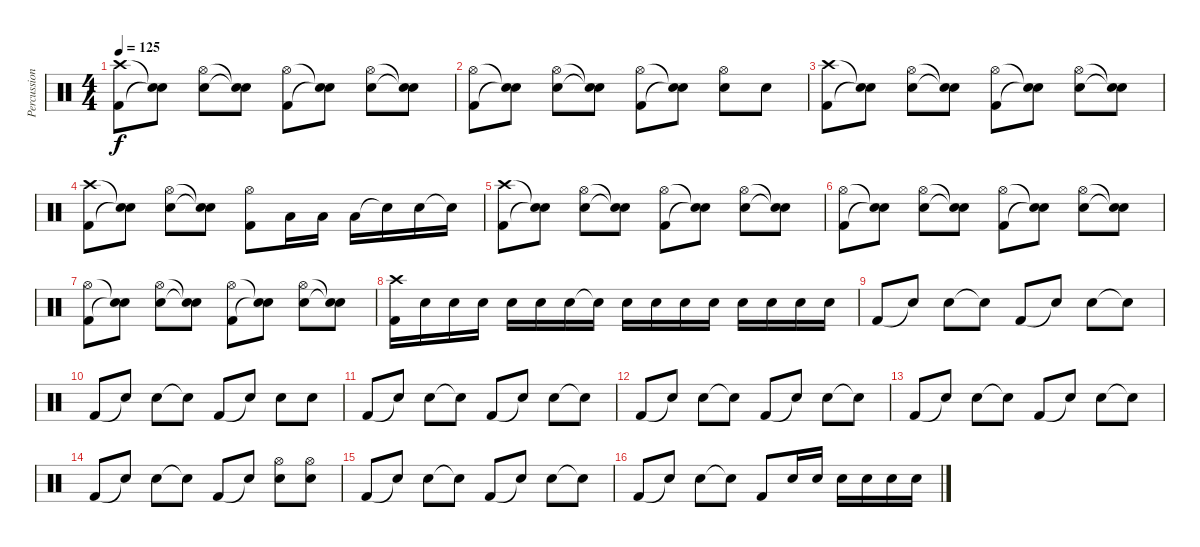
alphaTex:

\track ("Percussion" "Percussion") {instrument percussion}
\staff {score}
\articulation defaults
\ts (4 4)
\tempo 125
\clef neutral
\ks c
("Kick (hit) 2" "Crash high (hit)").8{dy f} ("Snare (hit)"{t} "Snare (hit)"{t}).8 ("Snare (hit) 2" "Hi-Hat (open)").8 ("Snare (hit)"{t} "Snare (hit)"{t}).8 ("Kick (hit) 2" "Hi-Hat (open)").8 ("Snare (hit)"{t} "Snare (hit)"{t}).8 ("Snare (hit) 2" "Hi-Hat (open)").8 ("Snare (hit)"{t} "Snare (hit)"{t}).8 |
("Kick (hit) 2" "Hi-Hat (open)").8 ("Snare (hit)"{t} "Snare (hit)"{t}).8 ("Snare (hit) 2" "Hi-Hat (open)").8 ("Snare (hit)"{t} "Snare (hit)"{t}).8 ("Kick (hit) 2" "Hi-Hat (open)").8 ("Snare (hit)"{t} "Snare (hit)"{t}).8 ("Snare (hit) 2" "Hi-Hat (open)").8 "Snare (hit) 2".8 |
("Kick (hit) 2" "Crash high (hit)").8 ("Snare (hit)"{t} "Snare (hit)"{t}).8 ("Snare (hit) 2" "Hi-Hat (open)").8 ("Snare (hit)"{t} "Snare (hit)"{t}).8 ("Kick (hit) 2" "Hi-Hat (open)").8 ("Snare (hit)"{t} "Snare (hit)"{t}).8 ("Snare (hit) 2" "Hi-Hat (open)").8 ("Snare (hit)"{t} "Snare (hit)"{t}).8 |
("Kick (hit) 2" "Crash high (hit)").8 ("Snare (hit)"{t} "Snare (hit)"{t}).8 ("Snare (hit) 2" "Hi-Hat (open)").8 ("Snare (hit)"{t} "Snare (hit)"{t}).8 ("Kick (hit) 2" "Hi-Hat (open)").8 "Low Tom (hit)".16 "Low Tom (hit)".16 "Low Tom (hit)".16 "Snare (hit)"{t}.16 "Snare (hit) 2".16 "Snare (hit)"{t}.16 |
("Kick (hit) 2" "Crash high (hit)").8 ("Snare (hit)"{t} "Snare (hit)"{t}).8 ("Snare (hit) 2" "Hi-Hat (open)").8 ("Snare (hit)"{t} "Snare (hit)"{t}).8 ("Kick (hit) 2" "Hi-Hat (open)").8 ("Snare (hit)"{t} "Snare (hit)"{t}).8 ("Snare (hit) 2" "Hi-Hat (open)").8 ("Snare (hit)"{t} "Snare (hit)"{t}).8 |
("Kick (hit) 2" "Hi-Hat (open)").8 ("Snare (hit)"{t} "Snare (hit)"{t}).8 ("Snare (hit) 2" "Hi-Hat (open)").8 ("Snare (hit)"{t} "Snare (hit)"{t}).8 ("Kick (hit) 2" "Hi-Hat (open)").8 ("Snare (hit)"{t} "Snare (hit)"{t}).8 ("Snare (hit) 2" "Hi-Hat (open)").8 ("Snare (hit)"{t} "Snare (hit)"{t}).8 |
("Kick (hit) 2" "Hi-Hat (open)").8 ("Snare (hit)"{t} "Snare (hit)"{t}).8 ("Snare (hit) 2" "Hi-Hat (open)").8 ("Snare (hit)"{t} "Snare (hit)"{t}).8 ("Kick (hit) 2" "Hi-Hat (open)").8 ("Snare (hit)"{t} "Snare (hit)"{t}).8 ("Snare (hit) 2" "Hi-Hat (open)").8 ("Snare (hit)"{t} "Snare (hit)"{t}).8 |
("Kick (hit) 2" "Crash high (hit)").16 "Snare (hit) 2".16 "Snare (hit) 2".16 "Snare (hit) 2".16 "Snare (hit) 2".16 "Snare (hit) 2".16 "Snare (hit) 2".16 "Snare (hit)"{t}.16 "Snare (hit) 2".16 "Snare (hit) 2".16 "Snare (hit) 2".16 "Snare (hit) 2".16 "Snare (hit) 2".16 "Snare (hit) 2".16 "Snare (hit) 2".16 "Snare (hit) 2".16 |
"Kick (hit) 2".8 "Snare (hit)"{t}.8 "Snare (hit) 2".8 "Snare (hit)"{t}.8 "Kick (hit) 2".8 "Snare (hit)"{t}.8 "Snare (hit) 2".8 "Snare (hit)"{t}.8 |
"Kick (hit) 2".8 "Snare (hit)"{t}.8 "Snare (hit) 2".8 "Snare (hit)"{t}.8 "Kick (hit) 2".8 "Snare (hit)"{t}.8 "Snare (hit) 2".8 "Snare (hit) 2".8 |
"Kick (hit) 2".8 "Snare (hit)"{t}.8 "Snare (hit) 2".8 "Snare (hit)"{t}.8 "Kick (hit) 2".8 "Snare (hit)"{t}.8 "Snare (hit) 2".8 "Snare (hit)"{t}.8 |
"Kick (hit) 2".8 "Snare (hit)"{t}.8 "Snare (hit) 2".8 "Snare (hit)"{t}.8 "Kick (hit) 2".8 "Snare (hit)"{t}.8 "Snare (hit) 2".8 "Snare (hit)"{t}.8 |
"Kick (hit) 2".8 "Snare (hit)"{t}.8 "Snare (hit) 2".8 "Snare (hit)"{t}.8 "Kick (hit) 2".8 "Snare (hit)"{t}.8 "Snare (hit) 2".8 "Snare (hit)"{t}.8 |
"Kick (hit) 2".8 "Snare (hit)"{t}.8 "Snare (hit) 2".8 "Snare (hit)"{t}.8 "Kick (hit) 2".8 "Snare (hit)"{t}.8 ("Snare (hit) 2" "Hi-Hat (open)").8 ("Snare (hit) 2" "Hi-Hat (open)").8 |
"Kick (hit) 2".8 "Snare (hit)"{t}.8 "Snare (hit) 2".8 "Snare (hit)"{t}.8 "Kick (hit) 2".8 "Snare (hit)"{t}.8 "Snare (hit) 2".8 "Snare (hit)"{t}.8 |
"Kick (hit) 2".8 "Snare (hit)"{t}.8 "Snare (hit) 2".8 "Snare (hit)"{t}.8 "Kick (hit) 2".8 "Snare (hit) 2".16 "Snare (hit) 2".16 "Snare (hit) 2".16 "Snare (hit) 2".16 "Snare (hit) 2".16 "Snare (hit) 2".16
